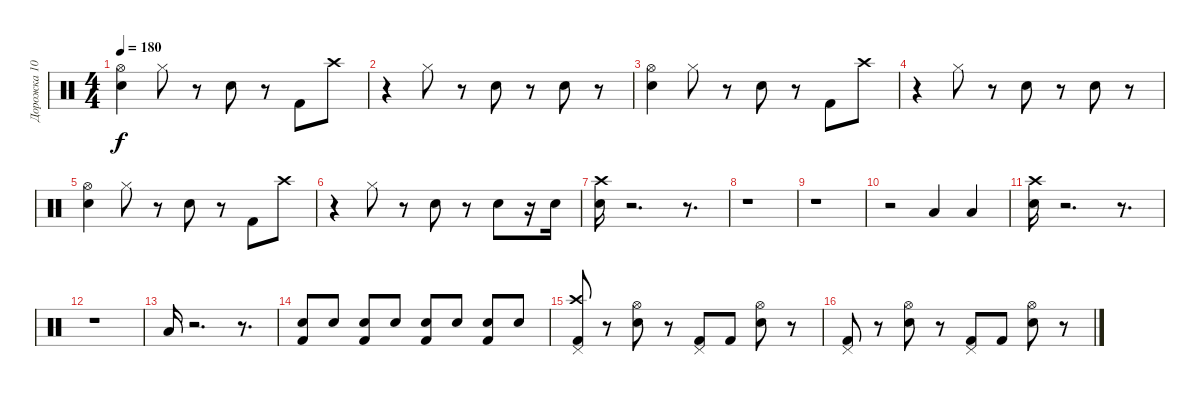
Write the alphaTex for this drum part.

\track ("Дорожка 10" "Дорожка 10") {instrument percussion}
\staff {score}
\articulation defaults
\ts (4 4)
\tempo 180
\clef neutral
\ks c
("Snare (hit) 2" "Hi-Hat (open)").4{dy f} "Hi-Hat (closed)".8 r.8 "Snare (hit) 2".8 r.8 "Kick (hit) 2".8 "Crash high (hit)".8 |
r.4 "Hi-Hat (closed)".8 r.8 "Snare (hit) 2".8 r.8 "Snare (hit) 2".8 r.8 |
("Snare (hit) 2" "Hi-Hat (open)").4 "Hi-Hat (closed)".8 r.8 "Snare (hit) 2".8 r.8 "Kick (hit) 2".8 "Crash high (hit)".8 |
r.4 "Hi-Hat (closed)".8 r.8 "Snare (hit) 2".8 r.8 "Snare (hit) 2".8 r.8 |
("Snare (hit) 2" "Hi-Hat (open)").4 "Hi-Hat (closed)".8 r.8 "Snare (hit) 2".8 r.8 "Kick (hit) 2".8 "Crash high (hit)".8 |
r.4 "Hi-Hat (closed)".8 r.8 "Snare (hit) 2".8 r.8 "Snare (hit) 2".8 r.16 "Snare (hit) 2".16 |
("Snare (hit) 2" "Crash high (hit)").16 r.2{d} r.8{d} |
r.1 |
r.1 |
r.2 "Low Tom (hit)".4 "Low Tom (hit)".4 |
("Snare (hit) 2" "Crash high (hit)").16 r.2{d} r.8{d} |
r.1 |
"Low Tom (hit)".16 r.2{d} r.8{d} |
("Snare (hit) 2" "Kick (hit) 2").8 "Snare (hit) 2".8 ("Snare (hit) 2" "Kick (hit) 2").8 "Snare (hit) 2".8 ("Snare (hit) 2" "Kick (hit) 2").8 "Snare (hit) 2".8 ("Snare (hit) 2" "Kick (hit) 2").8 "Snare (hit) 2".8 |
("Kick (hit) 2" "Crash high (hit)" "Pedal Hi-Hat (hit)").8 r.8 ("Snare (hit) 2" "Hi-Hat (open)").8 r.8 ("Kick (hit) 2" "Pedal Hi-Hat (hit)").8 "Kick (hit) 2".8 ("Snare (hit) 2" "Hi-Hat (open)").8 r.8 |
("Kick (hit) 2" "Pedal Hi-Hat (hit)").8 r.8 ("Snare (hit) 2" "Hi-Hat (open)").8 r.8 ("Kick (hit) 2" "Pedal Hi-Hat (hit)").8 "Kick (hit) 2".8 ("Snare (hit) 2" "Hi-Hat (open)").8 r.8
